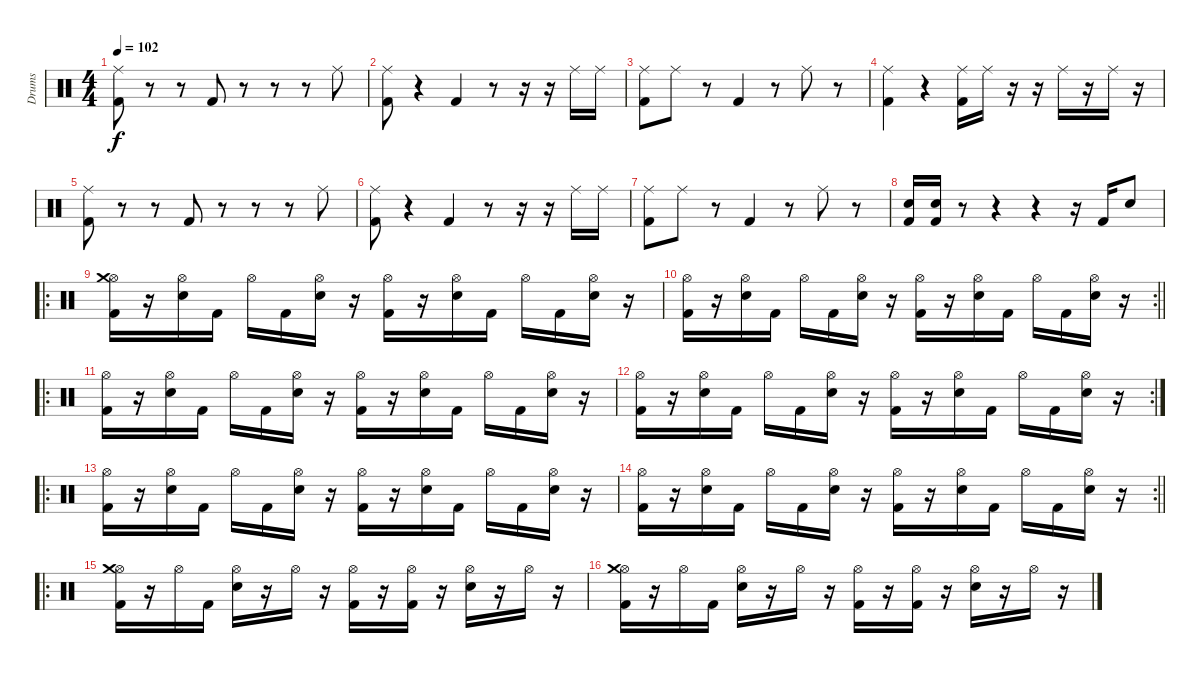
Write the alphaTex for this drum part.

\track ("Drums" "Drums") {instrument percussion}
\staff {score}
\articulation defaults
\ts (4 4)
\tempo 102
\clef neutral
\ks c
("Ride (middle)" "Kick (hit) 2").8{dy f} r.8 r.8 "Kick (hit) 2".8 r.8 r.8 r.8 "Ride (middle)".8 |
("Ride (middle)" "Kick (hit) 2").8 r.4 "Kick (hit) 2".4 r.8 r.16 r.16 "Ride (middle)".16 "Ride (middle)".16 |
("Ride (middle)" "Kick (hit) 2").8 "Ride (middle)".8 r.8 "Kick (hit) 2".4 r.8 "Ride (middle)".8 r.8 |
("Ride (middle)" "Kick (hit) 2").4 r.4 ("Ride (middle)" "Kick (hit) 2").16 "Ride (middle)".16 r.16 r.16 "Ride (middle)".16 r.16 "Ride (middle)".16 r.16 |
("Ride (middle)" "Kick (hit) 2").8 r.8 r.8 "Kick (hit) 2".8 r.8 r.8 r.8 "Ride (middle)".8 |
("Ride (middle)" "Kick (hit) 2").8 r.4 "Kick (hit) 2".4 r.8 r.16 r.16 "Ride (middle)".16 "Ride (middle)".16 |
("Ride (middle)" "Kick (hit) 2").8 "Ride (middle)".8 r.8 "Kick (hit) 2".4 r.8 "Ride (middle)".8 r.8 |
("Electric Snare (hit)" "Kick (hit) 2").16 ("Electric Snare (hit)" "Kick (hit) 2").16 r.8 r.4 r.4 r.16 "Kick (hit) 2".16 "Electric Snare (hit)".8 |
\ro
("Hi-Hat (open)" "Crash medium (hit)" "Kick (hit) 2").16 r.16 ("Hi-Hat (open)" "Electric Snare (hit)").16 "Kick (hit) 2".16 "Hi-Hat (open)".16 "Kick (hit) 2".16 ("Hi-Hat (open)" "Electric Snare (hit)").16 r.16 ("Hi-Hat (open)" "Kick (hit) 2").16 r.16 ("Hi-Hat (open)" "Electric Snare (hit)").16 "Kick (hit) 2".16 "Hi-Hat (open)".16 "Kick (hit) 2".16 ("Hi-Hat (open)" "Electric Snare (hit)").16 r.16 |
\rc 2
\barLineRight lightlight
("Hi-Hat (open)" "Kick (hit) 2").16 r.16 ("Hi-Hat (open)" "Electric Snare (hit)").16 "Kick (hit) 2".16 "Hi-Hat (open)".16 "Kick (hit) 2".16 ("Hi-Hat (open)" "Electric Snare (hit)").16 r.16 ("Hi-Hat (open)" "Kick (hit) 2").16 r.16 ("Hi-Hat (open)" "Electric Snare (hit)").16 "Kick (hit) 2".16 "Hi-Hat (open)".16 "Kick (hit) 2".16 ("Hi-Hat (open)" "Electric Snare (hit)").16 r.16 |
\ro
("Hi-Hat (open)" "Kick (hit) 2").16 r.16 ("Hi-Hat (open)" "Electric Snare (hit)").16 "Kick (hit) 2".16 "Hi-Hat (open)".16 "Kick (hit) 2".16 ("Hi-Hat (open)" "Electric Snare (hit)").16 r.16 ("Hi-Hat (open)" "Kick (hit) 2").16 r.16 ("Hi-Hat (open)" "Electric Snare (hit)").16 "Kick (hit) 2".16 "Hi-Hat (open)".16 "Kick (hit) 2".16 ("Hi-Hat (open)" "Electric Snare (hit)").16 r.16 |
\rc 2
("Hi-Hat (open)" "Kick (hit) 2").16 r.16 ("Hi-Hat (open)" "Electric Snare (hit)").16 "Kick (hit) 2".16 "Hi-Hat (open)".16 "Kick (hit) 2".16 ("Hi-Hat (open)" "Electric Snare (hit)").16 r.16 ("Hi-Hat (open)" "Kick (hit) 2").16 r.16 ("Hi-Hat (open)" "Electric Snare (hit)").16 "Kick (hit) 2".16 "Hi-Hat (open)".16 "Kick (hit) 2".16 ("Hi-Hat (open)" "Electric Snare (hit)").16 r.16 |
\ro
("Hi-Hat (open)" "Kick (hit) 2").16 r.16 ("Hi-Hat (open)" "Electric Snare (hit)").16 "Kick (hit) 2".16 "Hi-Hat (open)".16 "Kick (hit) 2".16 ("Hi-Hat (open)" "Electric Snare (hit)").16 r.16 ("Hi-Hat (open)" "Kick (hit) 2").16 r.16 ("Hi-Hat (open)" "Electric Snare (hit)").16 "Kick (hit) 2".16 "Hi-Hat (open)".16 "Kick (hit) 2".16 ("Hi-Hat (open)" "Electric Snare (hit)").16 r.16 |
\rc 2
\barLineRight lightlight
("Hi-Hat (open)" "Kick (hit) 2").16 r.16 ("Hi-Hat (open)" "Electric Snare (hit)").16 "Kick (hit) 2".16 "Hi-Hat (open)".16 "Kick (hit) 2".16 ("Hi-Hat (open)" "Electric Snare (hit)").16 r.16 ("Hi-Hat (open)" "Kick (hit) 2").16 r.16 ("Hi-Hat (open)" "Electric Snare (hit)").16 "Kick (hit) 2".16 "Hi-Hat (open)".16 "Kick (hit) 2".16 ("Hi-Hat (open)" "Electric Snare (hit)").16 r.16 |
\ro
("Hi-Hat (open)" "Crash medium (hit)" "Kick (hit) 2").16 r.16 "Hi-Hat (open)".16 "Kick (hit) 2".16 ("Hi-Hat (open)" "Electric Snare (hit)").16 r.16 "Hi-Hat (open)".16 r.16 ("Hi-Hat (open)" "Kick (hit) 2").16 r.16 ("Hi-Hat (open)" "Kick (hit) 2").16 r.16 ("Hi-Hat (open)" "Electric Snare (hit)").16 r.16 "Hi-Hat (open)".16 r.16 |
("Hi-Hat (open)" "Crash medium (hit)" "Kick (hit) 2").16 r.16 "Hi-Hat (open)".16 "Kick (hit) 2".16 ("Hi-Hat (open)" "Electric Snare (hit)").16 r.16 "Hi-Hat (open)".16 r.16 ("Hi-Hat (open)" "Kick (hit) 2").16 r.16 ("Hi-Hat (open)" "Kick (hit) 2").16 r.16 ("Hi-Hat (open)" "Electric Snare (hit)").16 r.16 "Hi-Hat (open)".16 r.16
